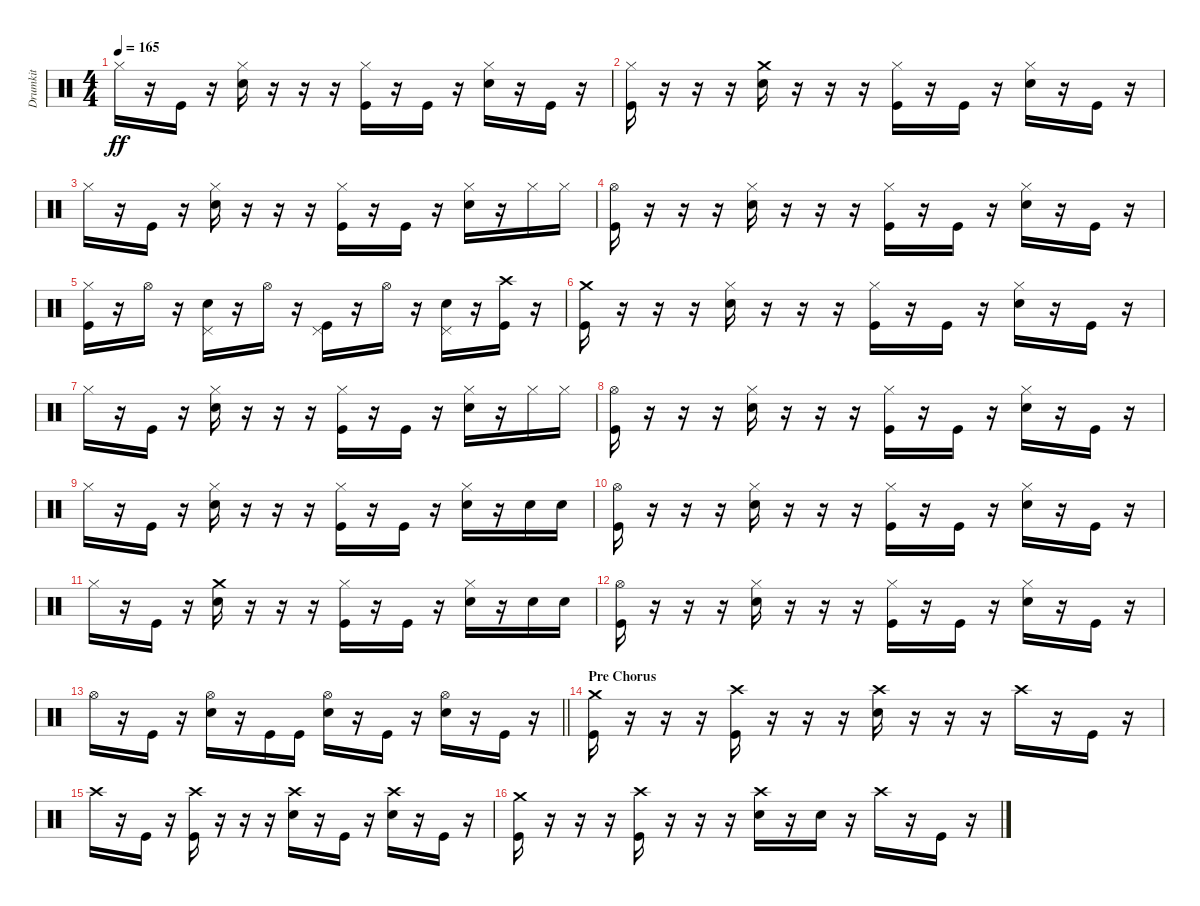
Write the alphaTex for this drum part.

\track ("Drumkit" "Drumkit") {instrument percussion}
\staff {score}
\articulation defaults
\ts (4 4)
\tempo 165
\clef neutral
\ks c "Hi-Hat (closed)".16{dy ff}
r.16 "Kick (hit)".16 r.16 ("Hi-Hat (closed)" "Snare (hit) 2").16 r.16 r.16 r.16 ("Hi-Hat (closed)" "Kick (hit)").16 r.16 "Kick (hit)".16 r.16 ("Hi-Hat (closed)" "Snare (hit) 2").16 r.16 "Kick (hit)".16 r.16 |
("Hi-Hat (closed)" "Kick (hit)").16 r.16 r.16 r.16 ("Crash medium (hit)" "Snare (hit) 2").16 r.16 r.16 r.16 ("Hi-Hat (closed)" "Kick (hit)").16 r.16 "Kick (hit)".16 r.16 ("Hi-Hat (closed)" "Snare (hit) 2").16 r.16 "Kick (hit)".16 r.16 |
"Hi-Hat (closed)".16 r.16 "Kick (hit)".16 r.16 ("Hi-Hat (closed)" "Snare (hit) 2").16 r.16 r.16 r.16 ("Hi-Hat (closed)" "Kick (hit)").16 r.16 "Kick (hit)".16 r.16 ("Hi-Hat (closed)" "Snare (hit) 2").16 r.16 "Hi-Hat (closed)".16 "Hi-Hat (closed)".16 |
("Hi-Hat (open)" "Kick (hit)").16 r.16 r.16 r.16 ("Hi-Hat (closed)" "Snare (hit) 2").16 r.16 r.16 r.16 ("Hi-Hat (closed)" "Kick (hit)").16 r.16 "Kick (hit)".16 r.16 ("Hi-Hat (closed)" "Snare (hit) 2").16 r.16 "Kick (hit)".16 r.16 |
("Hi-Hat (closed)" "Kick (hit)").16 r.16 "Hi-Hat (open)".16 r.16 ("Pedal Hi-Hat (hit)" "Snare (hit) 2").16 r.16 "Hi-Hat (open)".16 r.16 ("Pedal Hi-Hat (hit)" "Kick (hit)").16 r.16 "Hi-Hat (open)".16 r.16 ("Pedal Hi-Hat (hit)" "Snare (hit) 2").16 r.16 ("Crash high (hit)" "Kick (hit)").16 r.16 |
("Crash medium (hit)" "Kick (hit)").16 r.16 r.16 r.16 ("Hi-Hat (closed)" "Snare (hit) 2").16 r.16 r.16 r.16 ("Hi-Hat (closed)" "Kick (hit)").16 r.16 "Kick (hit)".16 r.16 ("Hi-Hat (closed)" "Snare (hit) 2").16 r.16 "Kick (hit)".16 r.16 |
"Hi-Hat (closed)".16 r.16 "Kick (hit)".16 r.16 ("Hi-Hat (closed)" "Snare (hit) 2").16 r.16 r.16 r.16 ("Hi-Hat (closed)" "Kick (hit)").16 r.16 "Kick (hit)".16 r.16 ("Hi-Hat (closed)" "Snare (hit) 2").16 r.16 "Hi-Hat (closed)".16 "Hi-Hat (closed)".16 |
("Hi-Hat (open)" "Kick (hit)").16 r.16 r.16 r.16 ("Hi-Hat (closed)" "Snare (hit) 2").16 r.16 r.16 r.16 ("Hi-Hat (closed)" "Kick (hit)").16 r.16 "Kick (hit)".16 r.16 ("Hi-Hat (closed)" "Snare (hit) 2").16 r.16 "Kick (hit)".16 r.16 |
"Hi-Hat (closed)".16 r.16 "Kick (hit)".16 r.16 ("Hi-Hat (closed)" "Snare (hit) 2").16 r.16 r.16 r.16 ("Hi-Hat (closed)" "Kick (hit)").16 r.16 "Kick (hit)".16 r.16 ("Hi-Hat (closed)" "Snare (hit) 2").16 r.16 "Snare (hit) 2".16 "Snare (hit) 2".16 |
("Hi-Hat (open)" "Kick (hit)").16 r.16 r.16 r.16 ("Hi-Hat (closed)" "Snare (hit) 2").16 r.16 r.16 r.16 ("Hi-Hat (closed)" "Kick (hit)").16 r.16 "Kick (hit)".16 r.16 ("Hi-Hat (closed)" "Snare (hit) 2").16 r.16 "Kick (hit)".16 r.16 |
"Hi-Hat (closed)".16 r.16 "Kick (hit)".16 r.16 ("Crash medium (hit)" "Snare (hit) 2").16 r.16 r.16 r.16 ("Hi-Hat (closed)" "Kick (hit)").16 r.16 "Kick (hit)".16 r.16 ("Hi-Hat (closed)" "Snare (hit) 2").16 r.16 "Snare (hit) 2".16 "Snare (hit) 2".16 |
("Hi-Hat (open)" "Kick (hit)").16 r.16 r.16 r.16 ("Hi-Hat (closed)" "Snare (hit) 2").16 r.16 r.16 r.16 ("Hi-Hat (closed)" "Kick (hit)").16 r.16 "Kick (hit)".16 r.16 ("Hi-Hat (closed)" "Snare (hit) 2").16 r.16 "Kick (hit)".16 r.16 |
\barLineRight lightlight "Hi-Hat (open)".16
r.16 "Kick (hit)".16 r.16 ("Hi-Hat (open)" "Snare (hit) 2").16 r.16 "Kick (hit)".16 "Kick (hit)".16 ("Hi-Hat (open)" "Snare (hit) 2").16 r.16 "Kick (hit)".16 r.16 ("Hi-Hat (open)" "Snare (hit) 2").16 r.16 "Kick (hit)".16 r.16 |
\section ("" "Pre Chorus")
("Crash medium (hit)" "Kick (hit)").16 r.16 r.16 r.16 ("Crash high (hit)" "Kick (hit)").16 r.16 r.16 r.16 ("Crash high (hit)" "Snare (hit) 2").16 r.16 r.16 r.16 "Crash high (hit)".16 r.16 "Kick (hit)".16 r.16 |
"Crash high (hit)".16 r.16 "Kick (hit)".16 r.16 ("Crash high (hit)" "Kick (hit)").16 r.16 r.16 r.16 ("Crash high (hit)" "Snare (hit) 2").16 r.16 "Kick (hit)".16 r.16 ("Crash high (hit)" "Snare (hit) 2").16 r.16 "Kick (hit)".16 r.16 |
("Crash medium (hit)" "Kick (hit)").16 r.16 r.16 r.16 ("Crash high (hit)" "Kick (hit)").16 r.16 r.16 r.16 ("Crash high (hit)" "Snare (hit) 2").16 r.16 "Snare (hit) 2".16 r.16 "Crash high (hit)".16 r.16 "Kick (hit)".16 r.16
